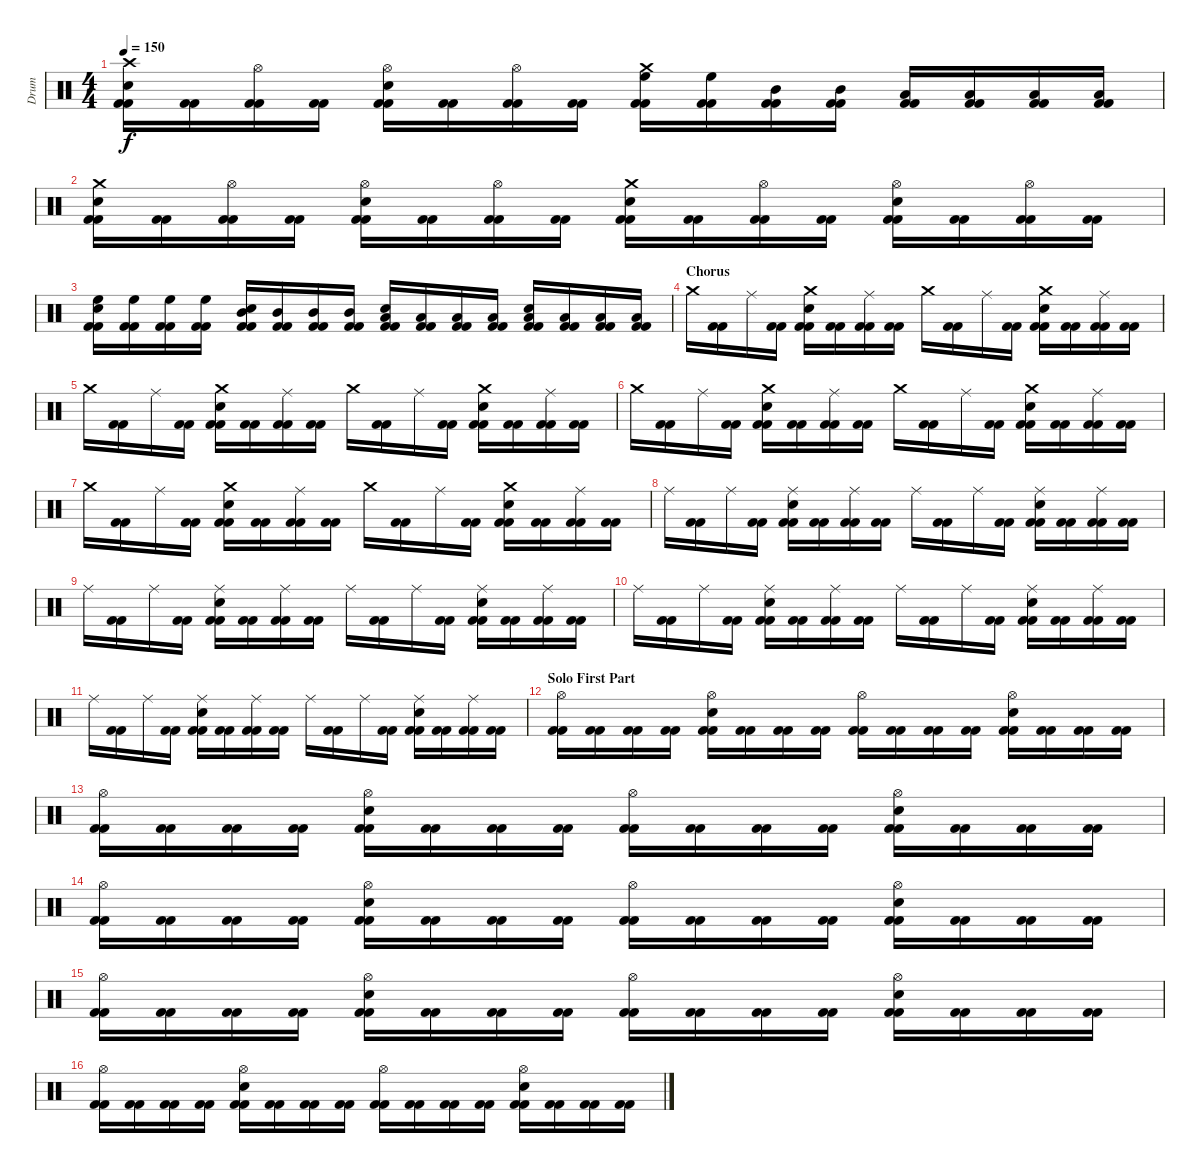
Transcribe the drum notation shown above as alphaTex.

\track ("Drum" "Drum") {instrument percussion}
\staff {score}
\articulation defaults
\ts (4 4)
\tempo 150
\clef neutral
\ks c
("Snare (hit) 2" "Crash high (hit)" "Kick (hit) 2" "Kick (hit) 2").16{dy f} ("Kick (hit) 2" "Kick (hit) 2").16 ("Hi-Hat (open)" "Kick (hit) 2" "Kick (hit) 2").16 ("Kick (hit) 2" "Kick (hit) 2").16 ("Snare (hit) 2" "Hi-Hat (open)" "Kick (hit) 2" "Kick (hit) 2").16 ("Kick (hit) 2" "Kick (hit) 2").16 ("Hi-Hat (open)" "Kick (hit) 2" "Kick (hit) 2").16 ("Kick (hit) 2" "Kick (hit) 2").16 ("High Floor Tom (hit)" "Crash medium (hit)" "Kick (hit) 2" "Kick (hit) 2").16 ("High Floor Tom (hit)" "Kick (hit) 2" "Kick (hit) 2").16 ("Mid Tom (hit)" "Kick (hit) 2" "Kick (hit) 2").16 ("Mid Tom (hit)" "Kick (hit) 2" "Kick (hit) 2").16 ("Low Tom (hit)" "Kick (hit) 2" "Kick (hit) 2").16 ("Low Tom (hit)" "Kick (hit) 2" "Kick (hit) 2").16 ("Low Floor Tom (hit)" "Kick (hit) 2" "Kick (hit) 2").16 ("Low Floor Tom (hit)" "Kick (hit) 2" "Kick (hit) 2").16 |
("Snare (hit) 2" "Crash medium (hit)" "Kick (hit) 2" "Kick (hit) 2").16 ("Kick (hit) 2" "Kick (hit) 2").16 ("Hi-Hat (open)" "Kick (hit) 2" "Kick (hit) 2").16 ("Kick (hit) 2" "Kick (hit) 2").16 ("Snare (hit) 2" "Hi-Hat (open)" "Kick (hit) 2" "Kick (hit) 2").16 ("Kick (hit) 2" "Kick (hit) 2").16 ("Hi-Hat (open)" "Kick (hit) 2" "Kick (hit) 2").16 ("Kick (hit) 2" "Kick (hit) 2").16 ("Snare (hit) 2" "Crash medium (hit)" "Kick (hit) 2" "Kick (hit) 2").16 ("Kick (hit) 2" "Kick (hit) 2").16 ("Hi-Hat (open)" "Kick (hit) 2" "Kick (hit) 2").16 ("Kick (hit) 2" "Kick (hit) 2").16 ("Snare (hit) 2" "Hi-Hat (open)" "Kick (hit) 2" "Kick (hit) 2").16 ("Kick (hit) 2" "Kick (hit) 2").16 ("Hi-Hat (open)" "Kick (hit) 2" "Kick (hit) 2").16 ("Kick (hit) 2" "Kick (hit) 2").16 |
("High Floor Tom (hit)" "Snare (hit) 2" "Kick (hit) 2" "Kick (hit) 2").16 ("High Floor Tom (hit)" "Kick (hit) 2" "Kick (hit) 2").16 ("High Floor Tom (hit)" "Kick (hit) 2" "Kick (hit) 2").16 ("High Floor Tom (hit)" "Kick (hit) 2" "Kick (hit) 2").16 ("Mid Tom (hit)" "Snare (hit) 2" "Kick (hit) 2" "Kick (hit) 2").16 ("Mid Tom (hit)" "Kick (hit) 2" "Kick (hit) 2").16 ("Mid Tom (hit)" "Kick (hit) 2" "Kick (hit) 2").16 ("Mid Tom (hit)" "Kick (hit) 2" "Kick (hit) 2").16 ("Low Tom (hit)" "Snare (hit) 2" "Kick (hit) 2" "Kick (hit) 2").16 ("Low Tom (hit)" "Kick (hit) 2" "Kick (hit) 2").16 ("Low Tom (hit)" "Kick (hit) 2" "Kick (hit) 2").16 ("Low Tom (hit)" "Kick (hit) 2" "Kick (hit) 2").16 ("Low Floor Tom (hit)" "Snare (hit) 2" "Kick (hit) 2" "Kick (hit) 2").16 ("Low Floor Tom (hit)" "Kick (hit) 2" "Kick (hit) 2").16 ("Low Floor Tom (hit)" "Kick (hit) 2" "Kick (hit) 2").16 ("Low Floor Tom (hit)" "Kick (hit) 2" "Kick (hit) 2").16 |
\section ("" "Chorus")
"Crash medium (hit)".16 ("Kick (hit) 2" "Kick (hit) 2").16 "Ride (middle)".16 ("Kick (hit) 2" "Kick (hit) 2").16 ("Snare (hit) 2" "Crash medium (hit)" "Kick (hit) 2" "Kick (hit) 2").16 ("Kick (hit) 2" "Kick (hit) 2").16 ("Ride (middle)" "Kick (hit) 2" "Kick (hit) 2").16 ("Kick (hit) 2" "Kick (hit) 2").16 "Crash medium (hit)".16 ("Kick (hit) 2" "Kick (hit) 2").16 "Ride (middle)".16 ("Kick (hit) 2" "Kick (hit) 2").16 ("Snare (hit) 2" "Crash medium (hit)" "Kick (hit) 2" "Kick (hit) 2").16 ("Kick (hit) 2" "Kick (hit) 2").16 ("Ride (middle)" "Kick (hit) 2" "Kick (hit) 2").16 ("Kick (hit) 2" "Kick (hit) 2").16 |
"Crash medium (hit)".16 ("Kick (hit) 2" "Kick (hit) 2").16 "Ride (middle)".16 ("Kick (hit) 2" "Kick (hit) 2").16 ("Snare (hit) 2" "Crash medium (hit)" "Kick (hit) 2" "Kick (hit) 2").16 ("Kick (hit) 2" "Kick (hit) 2").16 ("Ride (middle)" "Kick (hit) 2" "Kick (hit) 2").16 ("Kick (hit) 2" "Kick (hit) 2").16 "Crash medium (hit)".16 ("Kick (hit) 2" "Kick (hit) 2").16 "Ride (middle)".16 ("Kick (hit) 2" "Kick (hit) 2").16 ("Snare (hit) 2" "Crash medium (hit)" "Kick (hit) 2" "Kick (hit) 2").16 ("Kick (hit) 2" "Kick (hit) 2").16 ("Ride (middle)" "Kick (hit) 2" "Kick (hit) 2").16 ("Kick (hit) 2" "Kick (hit) 2").16 |
"Crash medium (hit)".16 ("Kick (hit) 2" "Kick (hit) 2").16 "Ride (middle)".16 ("Kick (hit) 2" "Kick (hit) 2").16 ("Snare (hit) 2" "Crash medium (hit)" "Kick (hit) 2" "Kick (hit) 2").16 ("Kick (hit) 2" "Kick (hit) 2").16 ("Ride (middle)" "Kick (hit) 2" "Kick (hit) 2").16 ("Kick (hit) 2" "Kick (hit) 2").16 "Crash medium (hit)".16 ("Kick (hit) 2" "Kick (hit) 2").16 "Ride (middle)".16 ("Kick (hit) 2" "Kick (hit) 2").16 ("Snare (hit) 2" "Crash medium (hit)" "Kick (hit) 2" "Kick (hit) 2").16 ("Kick (hit) 2" "Kick (hit) 2").16 ("Ride (middle)" "Kick (hit) 2" "Kick (hit) 2").16 ("Kick (hit) 2" "Kick (hit) 2").16 |
"Crash medium (hit)".16 ("Kick (hit) 2" "Kick (hit) 2").16 "Ride (middle)".16 ("Kick (hit) 2" "Kick (hit) 2").16 ("Snare (hit) 2" "Crash medium (hit)" "Kick (hit) 2" "Kick (hit) 2").16 ("Kick (hit) 2" "Kick (hit) 2").16 ("Ride (middle)" "Kick (hit) 2" "Kick (hit) 2").16 ("Kick (hit) 2" "Kick (hit) 2").16 "Crash medium (hit)".16 ("Kick (hit) 2" "Kick (hit) 2").16 "Ride (middle)".16 ("Kick (hit) 2" "Kick (hit) 2").16 ("Snare (hit) 2" "Crash medium (hit)" "Kick (hit) 2" "Kick (hit) 2").16 ("Kick (hit) 2" "Kick (hit) 2").16 ("Ride (middle)" "Kick (hit) 2" "Kick (hit) 2").16 ("Kick (hit) 2" "Kick (hit) 2").16 |
"Ride (middle)".16 ("Kick (hit) 2" "Kick (hit) 2").16 "Ride (middle)".16 ("Kick (hit) 2" "Kick (hit) 2").16 ("Snare (hit) 2" "Ride (middle)" "Kick (hit) 2" "Kick (hit) 2").16 ("Kick (hit) 2" "Kick (hit) 2").16 ("Ride (middle)" "Kick (hit) 2" "Kick (hit) 2").16 ("Kick (hit) 2" "Kick (hit) 2").16 "Ride (middle)".16 ("Kick (hit) 2" "Kick (hit) 2").16 "Ride (middle)".16 ("Kick (hit) 2" "Kick (hit) 2").16 ("Snare (hit) 2" "Ride (middle)" "Kick (hit) 2" "Kick (hit) 2").16 ("Kick (hit) 2" "Kick (hit) 2").16 ("Ride (middle)" "Kick (hit) 2" "Kick (hit) 2").16 ("Kick (hit) 2" "Kick (hit) 2").16 |
"Ride (middle)".16 ("Kick (hit) 2" "Kick (hit) 2").16 "Ride (middle)".16 ("Kick (hit) 2" "Kick (hit) 2").16 ("Snare (hit) 2" "Ride (middle)" "Kick (hit) 2" "Kick (hit) 2").16 ("Kick (hit) 2" "Kick (hit) 2").16 ("Ride (middle)" "Kick (hit) 2" "Kick (hit) 2").16 ("Kick (hit) 2" "Kick (hit) 2").16 "Ride (middle)".16 ("Kick (hit) 2" "Kick (hit) 2").16 "Ride (middle)".16 ("Kick (hit) 2" "Kick (hit) 2").16 ("Snare (hit) 2" "Ride (middle)" "Kick (hit) 2" "Kick (hit) 2").16 ("Kick (hit) 2" "Kick (hit) 2").16 ("Ride (middle)" "Kick (hit) 2" "Kick (hit) 2").16 ("Kick (hit) 2" "Kick (hit) 2").16 |
"Ride (middle)".16 ("Kick (hit) 2" "Kick (hit) 2").16 "Ride (middle)".16 ("Kick (hit) 2" "Kick (hit) 2").16 ("Snare (hit) 2" "Ride (middle)" "Kick (hit) 2" "Kick (hit) 2").16 ("Kick (hit) 2" "Kick (hit) 2").16 ("Ride (middle)" "Kick (hit) 2" "Kick (hit) 2").16 ("Kick (hit) 2" "Kick (hit) 2").16 "Ride (middle)".16 ("Kick (hit) 2" "Kick (hit) 2").16 "Ride (middle)".16 ("Kick (hit) 2" "Kick (hit) 2").16 ("Snare (hit) 2" "Ride (middle)" "Kick (hit) 2" "Kick (hit) 2").16 ("Kick (hit) 2" "Kick (hit) 2").16 ("Ride (middle)" "Kick (hit) 2" "Kick (hit) 2").16 ("Kick (hit) 2" "Kick (hit) 2").16 |
"Ride (middle)".16 ("Kick (hit) 2" "Kick (hit) 2").16 "Ride (middle)".16 ("Kick (hit) 2" "Kick (hit) 2").16 ("Snare (hit) 2" "Ride (middle)" "Kick (hit) 2" "Kick (hit) 2").16 ("Kick (hit) 2" "Kick (hit) 2").16 ("Ride (middle)" "Kick (hit) 2" "Kick (hit) 2").16 ("Kick (hit) 2" "Kick (hit) 2").16 "Ride (middle)".16 ("Kick (hit) 2" "Kick (hit) 2").16 "Ride (middle)".16 ("Kick (hit) 2" "Kick (hit) 2").16 ("Snare (hit) 2" "Ride (middle)" "Kick (hit) 2" "Kick (hit) 2").16 ("Kick (hit) 2" "Kick (hit) 2").16 ("Ride (middle)" "Kick (hit) 2" "Kick (hit) 2").16 ("Kick (hit) 2" "Kick (hit) 2").16 |
\section ("" "Solo First Part")
("Hi-Hat (open)" "Kick (hit) 2" "Kick (hit) 2").16 ("Kick (hit) 2" "Kick (hit) 2").16 ("Kick (hit) 2" "Kick (hit) 2").16 ("Kick (hit) 2" "Kick (hit) 2").16 ("Snare (hit) 2" "Hi-Hat (open)" "Kick (hit) 2" "Kick (hit) 2").16 ("Kick (hit) 2" "Kick (hit) 2").16 ("Kick (hit) 2" "Kick (hit) 2").16 ("Kick (hit) 2" "Kick (hit) 2").16 ("Hi-Hat (open)" "Kick (hit) 2" "Kick (hit) 2").16 ("Kick (hit) 2" "Kick (hit) 2").16 ("Kick (hit) 2" "Kick (hit) 2").16 ("Kick (hit) 2" "Kick (hit) 2").16 ("Snare (hit) 2" "Hi-Hat (open)" "Kick (hit) 2" "Kick (hit) 2").16 ("Kick (hit) 2" "Kick (hit) 2").16 ("Kick (hit) 2" "Kick (hit) 2").16 ("Kick (hit) 2" "Kick (hit) 2").16 |
("Hi-Hat (open)" "Kick (hit) 2" "Kick (hit) 2").16 ("Kick (hit) 2" "Kick (hit) 2").16 ("Kick (hit) 2" "Kick (hit) 2").16 ("Kick (hit) 2" "Kick (hit) 2").16 ("Snare (hit) 2" "Hi-Hat (open)" "Kick (hit) 2" "Kick (hit) 2").16 ("Kick (hit) 2" "Kick (hit) 2").16 ("Kick (hit) 2" "Kick (hit) 2").16 ("Kick (hit) 2" "Kick (hit) 2").16 ("Hi-Hat (open)" "Kick (hit) 2" "Kick (hit) 2").16 ("Kick (hit) 2" "Kick (hit) 2").16 ("Kick (hit) 2" "Kick (hit) 2").16 ("Kick (hit) 2" "Kick (hit) 2").16 ("Snare (hit) 2" "Hi-Hat (open)" "Kick (hit) 2" "Kick (hit) 2").16 ("Kick (hit) 2" "Kick (hit) 2").16 ("Kick (hit) 2" "Kick (hit) 2").16 ("Kick (hit) 2" "Kick (hit) 2").16 |
("Hi-Hat (open)" "Kick (hit) 2" "Kick (hit) 2").16 ("Kick (hit) 2" "Kick (hit) 2").16 ("Kick (hit) 2" "Kick (hit) 2").16 ("Kick (hit) 2" "Kick (hit) 2").16 ("Snare (hit) 2" "Hi-Hat (open)" "Kick (hit) 2" "Kick (hit) 2").16 ("Kick (hit) 2" "Kick (hit) 2").16 ("Kick (hit) 2" "Kick (hit) 2").16 ("Kick (hit) 2" "Kick (hit) 2").16 ("Hi-Hat (open)" "Kick (hit) 2" "Kick (hit) 2").16 ("Kick (hit) 2" "Kick (hit) 2").16 ("Kick (hit) 2" "Kick (hit) 2").16 ("Kick (hit) 2" "Kick (hit) 2").16 ("Snare (hit) 2" "Hi-Hat (open)" "Kick (hit) 2" "Kick (hit) 2").16 ("Kick (hit) 2" "Kick (hit) 2").16 ("Kick (hit) 2" "Kick (hit) 2").16 ("Kick (hit) 2" "Kick (hit) 2").16 |
("Hi-Hat (open)" "Kick (hit) 2" "Kick (hit) 2").16 ("Kick (hit) 2" "Kick (hit) 2").16 ("Kick (hit) 2" "Kick (hit) 2").16 ("Kick (hit) 2" "Kick (hit) 2").16 ("Snare (hit) 2" "Hi-Hat (open)" "Kick (hit) 2" "Kick (hit) 2").16 ("Kick (hit) 2" "Kick (hit) 2").16 ("Kick (hit) 2" "Kick (hit) 2").16 ("Kick (hit) 2" "Kick (hit) 2").16 ("Hi-Hat (open)" "Kick (hit) 2" "Kick (hit) 2").16 ("Kick (hit) 2" "Kick (hit) 2").16 ("Kick (hit) 2" "Kick (hit) 2").16 ("Kick (hit) 2" "Kick (hit) 2").16 ("Snare (hit) 2" "Hi-Hat (open)" "Kick (hit) 2" "Kick (hit) 2").16 ("Kick (hit) 2" "Kick (hit) 2").16 ("Kick (hit) 2" "Kick (hit) 2").16 ("Kick (hit) 2" "Kick (hit) 2").16 |
("Hi-Hat (open)" "Kick (hit) 2" "Kick (hit) 2").16 ("Kick (hit) 2" "Kick (hit) 2").16 ("Kick (hit) 2" "Kick (hit) 2").16 ("Kick (hit) 2" "Kick (hit) 2").16 ("Snare (hit) 2" "Hi-Hat (open)" "Kick (hit) 2" "Kick (hit) 2").16 ("Kick (hit) 2" "Kick (hit) 2").16 ("Kick (hit) 2" "Kick (hit) 2").16 ("Kick (hit) 2" "Kick (hit) 2").16 ("Hi-Hat (open)" "Kick (hit) 2" "Kick (hit) 2").16 ("Kick (hit) 2" "Kick (hit) 2").16 ("Kick (hit) 2" "Kick (hit) 2").16 ("Kick (hit) 2" "Kick (hit) 2").16 ("Snare (hit) 2" "Hi-Hat (open)" "Kick (hit) 2" "Kick (hit) 2").16 ("Kick (hit) 2" "Kick (hit) 2").16 ("Kick (hit) 2" "Kick (hit) 2").16 ("Kick (hit) 2" "Kick (hit) 2").16
